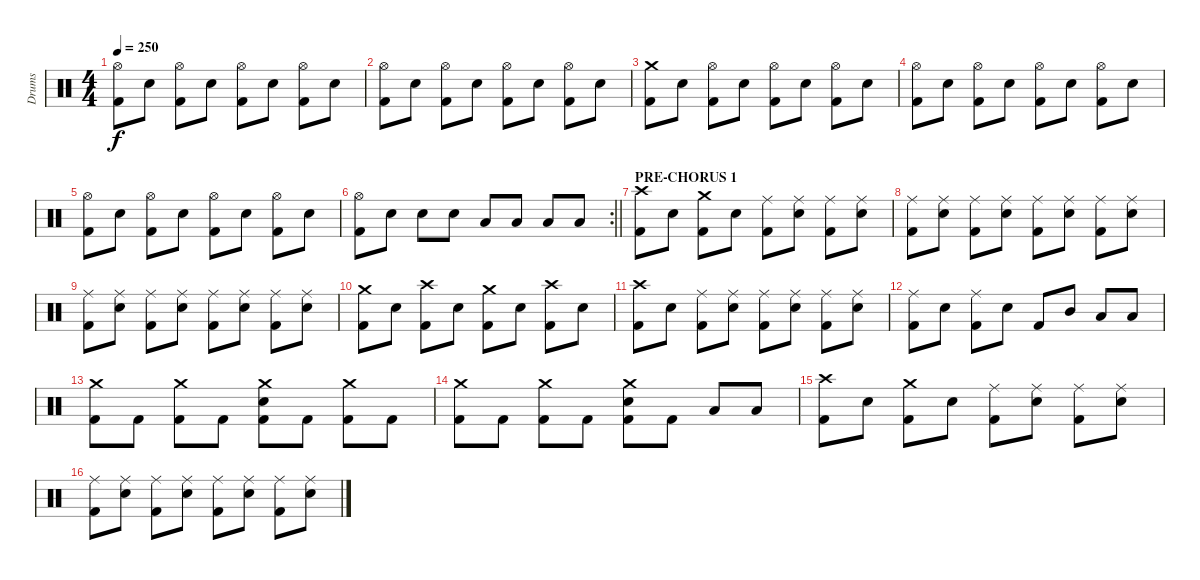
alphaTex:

\track ("Drums" "Drums") {instrument percussion}
\staff {score}
\articulation defaults
\ts (4 4)
\tempo 250
\clef neutral
\ks c
("Hi-Hat (open)" "Kick (hit) 2").8{dy f} "Electric Snare (hit)".8 ("Hi-Hat (open)" "Kick (hit) 2").8 "Electric Snare (hit)".8 ("Hi-Hat (open)" "Kick (hit) 2").8 "Electric Snare (hit)".8 ("Hi-Hat (open)" "Kick (hit) 2").8 "Electric Snare (hit)".8 |
("Hi-Hat (open)" "Kick (hit) 2").8 "Electric Snare (hit)".8 ("Hi-Hat (open)" "Kick (hit) 2").8 "Electric Snare (hit)".8 ("Hi-Hat (open)" "Kick (hit) 2").8 "Electric Snare (hit)".8 ("Hi-Hat (open)" "Kick (hit) 2").8 "Electric Snare (hit)".8 |
("Crash medium (hit)" "Kick (hit) 2").8 "Electric Snare (hit)".8 ("Hi-Hat (open)" "Kick (hit) 2").8 "Electric Snare (hit)".8 ("Hi-Hat (open)" "Kick (hit) 2").8 "Electric Snare (hit)".8 ("Hi-Hat (open)" "Kick (hit) 2").8 "Electric Snare (hit)".8 |
("Hi-Hat (open)" "Kick (hit) 2").8 "Electric Snare (hit)".8 ("Hi-Hat (open)" "Kick (hit) 2").8 "Electric Snare (hit)".8 ("Hi-Hat (open)" "Kick (hit) 2").8 "Electric Snare (hit)".8 ("Hi-Hat (open)" "Kick (hit) 2").8 "Electric Snare (hit)".8 |
("Hi-Hat (open)" "Kick (hit) 2").8 "Electric Snare (hit)".8 ("Hi-Hat (open)" "Kick (hit) 2").8 "Electric Snare (hit)".8 ("Hi-Hat (open)" "Kick (hit) 2").8 "Electric Snare (hit)".8 ("Hi-Hat (open)" "Kick (hit) 2").8 "Electric Snare (hit)".8 |
\rc 2
\barLineRight lightlight
("Hi-Hat (open)" "Kick (hit) 2").8 "Electric Snare (hit)".8 "Electric Snare (hit)".8 "Electric Snare (hit)".8 "Low Tom (hit)".8 "Low Tom (hit)".8 "Low Floor Tom (hit)".8 "Low Floor Tom (hit)".8 |
\section ("" "PRE-CHORUS 1")
("Crash high (hit)" "Kick (hit) 2").8 "Electric Snare (hit)".8 ("Crash medium (hit)" "Kick (hit) 2").8 "Electric Snare (hit)".8 ("Ride (middle)" "Kick (hit) 2").8 ("Ride (middle)" "Electric Snare (hit)").8 ("Ride (middle)" "Kick (hit) 2").8 ("Ride (middle)" "Electric Snare (hit)").8 |
("Ride (middle)" "Kick (hit) 2").8 ("Ride (middle)" "Electric Snare (hit)").8 ("Ride (middle)" "Kick (hit) 2").8 ("Ride (middle)" "Electric Snare (hit)").8 ("Ride (middle)" "Kick (hit) 2").8 ("Ride (middle)" "Electric Snare (hit)").8 ("Ride (middle)" "Kick (hit) 2").8 ("Ride (middle)" "Electric Snare (hit)").8 |
("Ride (middle)" "Kick (hit) 2").8 ("Ride (middle)" "Electric Snare (hit)").8 ("Ride (middle)" "Kick (hit) 2").8 ("Ride (middle)" "Electric Snare (hit)").8 ("Ride (middle)" "Kick (hit) 2").8 ("Ride (middle)" "Electric Snare (hit)").8 ("Ride (middle)" "Kick (hit) 2").8 ("Ride (middle)" "Electric Snare (hit)").8 |
("Crash medium (hit)" "Kick (hit) 2").8 "Electric Snare (hit)".8 ("Crash high (hit)" "Kick (hit) 2").8 "Electric Snare (hit)".8 ("Crash medium (hit)" "Kick (hit) 2").8 "Electric Snare (hit)".8 ("Crash high (hit)" "Kick (hit) 2").8 "Electric Snare (hit)".8 |
("Crash high (hit)" "Kick (hit) 2").8 "Electric Snare (hit)".8 ("Ride (middle)" "Kick (hit) 2").8 ("Ride (middle)" "Electric Snare (hit)").8 ("Ride (middle)" "Kick (hit) 2").8 ("Ride (middle)" "Electric Snare (hit)").8 ("Ride (middle)" "Kick (hit) 2").8 ("Ride (middle)" "Electric Snare (hit)").8 |
("Ride (middle)" "Kick (hit) 2").8 "Electric Snare (hit)".8 ("Ride (middle)" "Kick (hit) 2").8 "Electric Snare (hit)".8 "Kick (hit) 2".8 "Mid Tom (hit)".8 "Low Tom (hit)".8 "Low Floor Tom (hit)".8 |
("Crash medium (hit)" "Kick (hit) 2").8 "Kick (hit) 2".8 ("Crash medium (hit)" "Kick (hit) 2").8 "Kick (hit) 2".8 ("Crash medium (hit)" "Electric Snare (hit)" "Kick (hit) 2").8 "Kick (hit) 2".8 ("Crash medium (hit)" "Kick (hit) 2").8 "Kick (hit) 2".8 |
("Crash medium (hit)" "Kick (hit) 2").8 "Kick (hit) 2".8 ("Crash medium (hit)" "Kick (hit) 2").8 "Kick (hit) 2".8 ("Crash medium (hit)" "Electric Snare (hit)" "Kick (hit) 2").8 "Kick (hit) 2".8 "Low Tom (hit)".8 "Low Floor Tom (hit)".8 |
("Crash high (hit)" "Kick (hit) 2").8 "Electric Snare (hit)".8 ("Crash medium (hit)" "Kick (hit) 2").8 "Electric Snare (hit)".8 ("Ride (middle)" "Kick (hit) 2").8 ("Ride (middle)" "Electric Snare (hit)").8 ("Ride (middle)" "Kick (hit) 2").8 ("Ride (middle)" "Electric Snare (hit)").8 |
("Ride (middle)" "Kick (hit) 2").8 ("Ride (middle)" "Electric Snare (hit)").8 ("Ride (middle)" "Kick (hit) 2").8 ("Ride (middle)" "Electric Snare (hit)").8 ("Ride (middle)" "Kick (hit) 2").8 ("Ride (middle)" "Electric Snare (hit)").8 ("Ride (middle)" "Kick (hit) 2").8 ("Ride (middle)" "Electric Snare (hit)").8
